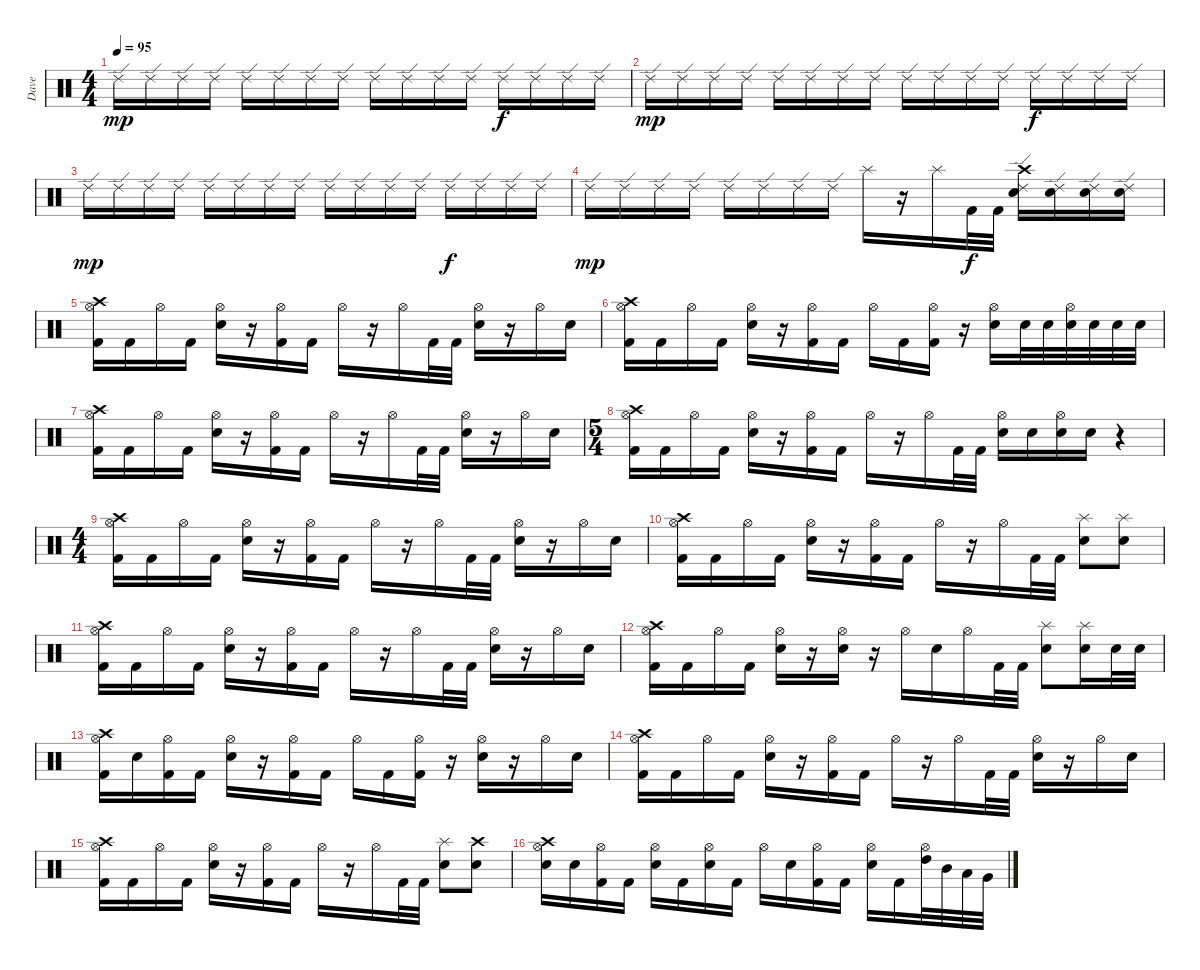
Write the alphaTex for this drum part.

\track ("Dave" "Dave") {instrument percussion}
\staff {score}
\articulation defaults
\ts (4 4)
\tempo 95
\clef neutral
\ks c "Ride (edge) 2".16{dy mp} "Ride (edge) 2".16 "Ride (edge) 2".16 "Ride (edge) 2".16 "Ride (edge) 2".16 "Ride (edge) 2".16 "Ride (edge) 2".16 "Ride (edge) 2".16 "Ride (edge) 2".16 "Ride (edge) 2".16 "Ride (edge) 2".16 "Ride (edge) 2".16 "Ride (edge) 2".16{dy f} "Ride (edge) 2".16 "Ride (edge) 2".16 "Ride (edge) 2".16
|
"Ride (edge) 2".16{dy mp} "Ride (edge) 2".16 "Ride (edge) 2".16 "Ride (edge) 2".16 "Ride (edge) 2".16 "Ride (edge) 2".16 "Ride (edge) 2".16 "Ride (edge) 2".16 "Ride (edge) 2".16 "Ride (edge) 2".16 "Ride (edge) 2".16 "Ride (edge) 2".16 "Ride (edge) 2".16{dy f} "Ride (edge) 2".16 "Ride (edge) 2".16 "Ride (edge) 2".16 |
"Ride (edge) 2".16{dy mp} "Ride (edge) 2".16 "Ride (edge) 2".16 "Ride (edge) 2".16 "Ride (edge) 2".16 "Ride (edge) 2".16 "Ride (edge) 2".16 "Ride (edge) 2".16 "Ride (edge) 2".16 "Ride (edge) 2".16 "Ride (edge) 2".16 "Ride (edge) 2".16 "Ride (edge) 2".16{dy f} "Ride (edge) 2".16 "Ride (edge) 2".16 "Ride (edge) 2".16 |
"Ride (edge) 2".16{dy mp} "Ride (edge) 2".16 "Ride (edge) 2".16 "Ride (edge) 2".16 "Ride (edge) 2".16 "Ride (edge) 2".16 "Ride (edge) 2".16 "Ride (edge) 2".16 "Splash (hit)".16 r.16 "Splash (hit)".16 "Kick (hit) 2".32{dy f} "Kick (hit) 2".32 ("Ride (edge) 2" "Snare (hit) 2" "Crash high (hit)").16 ("Ride (edge) 2" "Snare (hit) 2").16 ("Ride (edge) 2" "Snare (hit) 2").16 ("Ride (edge) 2" "Snare (hit) 2").16 |
("Kick (hit) 2" "Hi-Hat (open)" "Crash high (hit)").16 "Kick (hit) 2".16 "Hi-Hat (open)".16 "Kick (hit) 2".16 ("Snare (hit) 2" "Hi-Hat (open)").16 r.16 ("Kick (hit) 2" "Hi-Hat (open)").16 "Kick (hit) 2".16 "Hi-Hat (open)".16 r.16 "Hi-Hat (open)".16 "Kick (hit) 2".32 "Kick (hit) 2".32 ("Snare (hit) 2" "Hi-Hat (open)").16 r.16 "Hi-Hat (open)".16 "Snare (hit) 2".16 |
("Kick (hit) 2" "Hi-Hat (open)" "Crash high (hit)").16 "Kick (hit) 2".16 "Hi-Hat (open)".16 "Kick (hit) 2".16 ("Snare (hit) 2" "Hi-Hat (open)").16 r.16 ("Kick (hit) 2" "Hi-Hat (open)").16 "Kick (hit) 2".16 "Hi-Hat (open)".16 "Kick (hit) 2".16 ("Kick (hit) 2" "Hi-Hat (open)").16 r.16 ("Snare (hit) 2" "Hi-Hat (open)").16 "Snare (hit) 2".32 "Snare (hit) 2".32 ("Snare (hit) 2" "Hi-Hat (open)").32 "Snare (hit) 2".32 "Snare (hit) 2".32 "Snare (hit) 2".32 |
("Kick (hit) 2" "Hi-Hat (open)" "Crash high (hit)").16 "Kick (hit) 2".16 "Hi-Hat (open)".16 "Kick (hit) 2".16 ("Snare (hit) 2" "Hi-Hat (open)").16 r.16 ("Kick (hit) 2" "Hi-Hat (open)").16 "Kick (hit) 2".16 "Hi-Hat (open)".16 r.16 "Hi-Hat (open)".16 "Kick (hit) 2".32 "Kick (hit) 2".32 ("Snare (hit) 2" "Hi-Hat (open)").16 r.16 "Hi-Hat (open)".16 "Snare (hit) 2".16 |
\ts (5 4)
("Kick (hit) 2" "Hi-Hat (open)" "Crash high (hit)").16 "Kick (hit) 2".16 "Hi-Hat (open)".16 "Kick (hit) 2".16 ("Snare (hit) 2" "Hi-Hat (open)").16 r.16 ("Kick (hit) 2" "Hi-Hat (open)").16 "Kick (hit) 2".16 "Hi-Hat (open)".16 r.16 "Hi-Hat (open)".16 "Kick (hit) 2".32 "Kick (hit) 2".32 ("Snare (hit) 2" "Hi-Hat (open)").16 "Snare (hit) 2".16 ("Snare (hit) 2" "Hi-Hat (open)").16 "Snare (hit) 2".16 r.4 |
\ts (4 4)
("Kick (hit) 2" "Hi-Hat (open)" "Crash high (hit)").16 "Kick (hit) 2".16 "Hi-Hat (open)".16 "Kick (hit) 2".16 ("Snare (hit) 2" "Hi-Hat (open)").16 r.16 ("Kick (hit) 2" "Hi-Hat (open)").16 "Kick (hit) 2".16 "Hi-Hat (open)".16 r.16 "Hi-Hat (open)".16 "Kick (hit) 2".32 "Kick (hit) 2".32 ("Snare (hit) 2" "Hi-Hat (open)").16 r.16 "Hi-Hat (open)".16 "Snare (hit) 2".16 |
("Kick (hit) 2" "Hi-Hat (open)" "Crash high (hit)").16 "Kick (hit) 2".16 "Hi-Hat (open)".16 "Kick (hit) 2".16 ("Snare (hit) 2" "Hi-Hat (open)").16 r.16 ("Kick (hit) 2" "Hi-Hat (open)").16 "Kick (hit) 2".16 "Hi-Hat (open)".16 r.16 "Hi-Hat (open)".16 "Kick (hit) 2".32 "Kick (hit) 2".32 ("Snare (hit) 2" "Splash (hit)").8 ("Snare (hit) 2" "Splash (hit)").8 |
("Kick (hit) 2" "Hi-Hat (open)" "Crash high (hit)").16 "Kick (hit) 2".16 "Hi-Hat (open)".16 "Kick (hit) 2".16 ("Snare (hit) 2" "Hi-Hat (open)").16 r.16 ("Kick (hit) 2" "Hi-Hat (open)").16 "Kick (hit) 2".16 "Hi-Hat (open)".16 r.16 "Hi-Hat (open)".16 "Kick (hit) 2".32 "Kick (hit) 2".32 ("Snare (hit) 2" "Hi-Hat (open)").16 r.16 "Hi-Hat (open)".16 "Snare (hit) 2".16 |
("Kick (hit) 2" "Hi-Hat (open)" "Crash high (hit)").16 "Kick (hit) 2".16 "Hi-Hat (open)".16 "Kick (hit) 2".16 ("Snare (hit) 2" "Hi-Hat (open)").16 r.16 ("Snare (hit) 2" "Hi-Hat (open)").16 r.16 "Hi-Hat (open)".16 "Snare (hit) 2".16 "Hi-Hat (open)".16 "Kick (hit) 2".32 "Kick (hit) 2".32 ("Snare (hit) 2" "Splash (hit)").8 ("Snare (hit) 2" "Splash (hit)").16 "Snare (hit) 2".32 "Snare (hit) 2".32 |
("Kick (hit) 2" "Hi-Hat (open)" "Crash high (hit)").16 "Snare (hit) 2".16 ("Kick (hit) 2" "Hi-Hat (open)").16 "Kick (hit) 2".16 ("Snare (hit) 2" "Hi-Hat (open)").16 r.16 ("Kick (hit) 2" "Hi-Hat (open)").16 "Kick (hit) 2".16 "Hi-Hat (open)".16 "Kick (hit) 2".16 ("Kick (hit) 2" "Hi-Hat (open)").16 r.16 ("Snare (hit) 2" "Hi-Hat (open)").16 r.16 "Hi-Hat (open)".16 "Snare (hit) 2".16 |
("Kick (hit) 2" "Hi-Hat (open)" "Crash high (hit)").16 "Kick (hit) 2".16 "Hi-Hat (open)".16 "Kick (hit) 2".16 ("Snare (hit) 2" "Hi-Hat (open)").16 r.16 ("Kick (hit) 2" "Hi-Hat (open)").16 "Kick (hit) 2".16 "Hi-Hat (open)".16 r.16 "Hi-Hat (open)".16 "Kick (hit) 2".32 "Kick (hit) 2".32 ("Snare (hit) 2" "Hi-Hat (open)").16 r.16 "Hi-Hat (open)".16 "Snare (hit) 2".16 |
("Kick (hit) 2" "Hi-Hat (open)" "Crash high (hit)").16 "Kick (hit) 2".16 "Hi-Hat (open)".16 "Kick (hit) 2".16 ("Snare (hit) 2" "Hi-Hat (open)").16 r.16 ("Kick (hit) 2" "Hi-Hat (open)").16 "Kick (hit) 2".16 "Hi-Hat (open)".16 r.16 "Hi-Hat (open)".16 "Kick (hit) 2".32 "Kick (hit) 2".32 ("Snare (hit) 2" "Splash (hit)").8 ("Snare (hit) 2" "Crash high (hit)").8 |
("Snare (hit) 2" "Hi-Hat (open)" "Crash high (hit)").16 "Snare (hit) 2".16 ("Kick (hit) 2" "Hi-Hat (open)").16 "Kick (hit) 2".16 ("Snare (hit) 2" "Hi-Hat (open)").16 "Kick (hit) 2".16 ("Snare (hit) 2" "Hi-Hat (open)").16 "Kick (hit) 2".16 "Hi-Hat (open)".16 "Snare (hit) 2".16 ("Kick (hit) 2" "Hi-Hat (open)").16 "Kick (hit) 2".16 ("Snare (hit) 2" "Hi-Hat (open)").16 "Kick (hit) 2".16 ("High Tom (hit)" "Hi-Hat (open)").32 "Mid Tom (hit)".32 "Low Tom (hit)".32 "Very Low Tom (hit)".32
